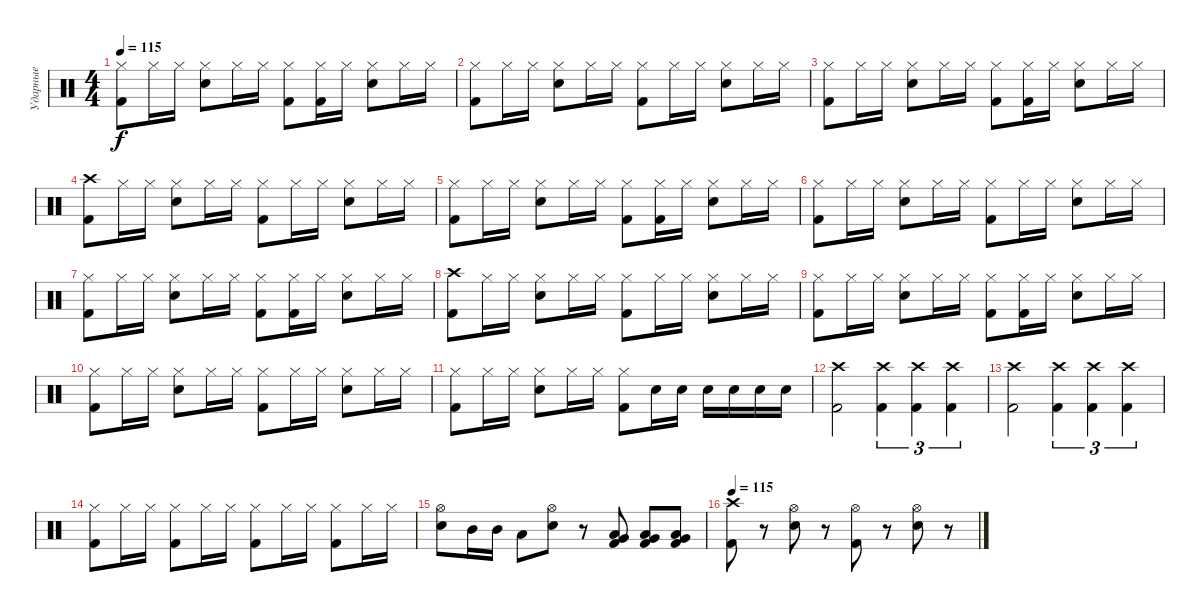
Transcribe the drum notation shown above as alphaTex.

\track ("Ударные" "Ударные") {instrument percussion}
\staff {score}
\articulation defaults
\ts (4 4)
\tempo 115
\clef neutral
\ks c
("Kick (hit) 2" "Hi-Hat (closed)").8{dy f} "Hi-Hat (closed)".16 "Hi-Hat (closed)".16 ("Hi-Hat (closed)" "Electric Snare (hit)").8 "Hi-Hat (closed)".16 "Hi-Hat (closed)".16 ("Kick (hit) 2" "Hi-Hat (closed)").8 ("Kick (hit) 2" "Hi-Hat (closed)").16 "Hi-Hat (closed)".16 ("Hi-Hat (closed)" "Electric Snare (hit)").8 "Hi-Hat (closed)".16 "Hi-Hat (closed)".16 |
("Kick (hit) 2" "Hi-Hat (closed)").8 "Hi-Hat (closed)".16 "Hi-Hat (closed)".16 ("Hi-Hat (closed)" "Electric Snare (hit)").8 "Hi-Hat (closed)".16 "Hi-Hat (closed)".16 ("Kick (hit) 2" "Hi-Hat (closed)").8 "Hi-Hat (closed)".16 "Hi-Hat (closed)".16 ("Hi-Hat (closed)" "Electric Snare (hit)").8 "Hi-Hat (closed)".16 "Hi-Hat (closed)".16 |
("Kick (hit) 2" "Hi-Hat (closed)").8 "Hi-Hat (closed)".16 "Hi-Hat (closed)".16 ("Hi-Hat (closed)" "Electric Snare (hit)").8 "Hi-Hat (closed)".16 "Hi-Hat (closed)".16 ("Kick (hit) 2" "Hi-Hat (closed)").8 ("Kick (hit) 2" "Hi-Hat (closed)").16 "Hi-Hat (closed)".16 ("Hi-Hat (closed)" "Electric Snare (hit)").8 "Hi-Hat (closed)".16 "Hi-Hat (closed)".16 |
("Kick (hit) 2" "Crash high (hit)").8 "Hi-Hat (closed)".16 "Hi-Hat (closed)".16 ("Hi-Hat (closed)" "Electric Snare (hit)").8 "Hi-Hat (closed)".16 "Hi-Hat (closed)".16 ("Kick (hit) 2" "Hi-Hat (closed)").8 "Hi-Hat (closed)".16 "Hi-Hat (closed)".16 ("Hi-Hat (closed)" "Electric Snare (hit)").8 "Hi-Hat (closed)".16 "Hi-Hat (closed)".16 |
("Kick (hit) 2" "Hi-Hat (closed)").8 "Hi-Hat (closed)".16 "Hi-Hat (closed)".16 ("Hi-Hat (closed)" "Electric Snare (hit)").8 "Hi-Hat (closed)".16 "Hi-Hat (closed)".16 ("Kick (hit) 2" "Hi-Hat (closed)").8 ("Kick (hit) 2" "Hi-Hat (closed)").16 "Hi-Hat (closed)".16 ("Hi-Hat (closed)" "Electric Snare (hit)").8 "Hi-Hat (closed)".16 "Hi-Hat (closed)".16 |
("Kick (hit) 2" "Hi-Hat (closed)").8 "Hi-Hat (closed)".16 "Hi-Hat (closed)".16 ("Hi-Hat (closed)" "Electric Snare (hit)").8 "Hi-Hat (closed)".16 "Hi-Hat (closed)".16 ("Kick (hit) 2" "Hi-Hat (closed)").8 "Hi-Hat (closed)".16 "Hi-Hat (closed)".16 ("Hi-Hat (closed)" "Electric Snare (hit)").8 "Hi-Hat (closed)".16 "Hi-Hat (closed)".16 |
("Kick (hit) 2" "Hi-Hat (closed)").8 "Hi-Hat (closed)".16 "Hi-Hat (closed)".16 ("Hi-Hat (closed)" "Electric Snare (hit)").8 "Hi-Hat (closed)".16 "Hi-Hat (closed)".16 ("Kick (hit) 2" "Hi-Hat (closed)").8 ("Kick (hit) 2" "Hi-Hat (closed)").16 "Hi-Hat (closed)".16 ("Hi-Hat (closed)" "Electric Snare (hit)").8 "Hi-Hat (closed)".16 "Hi-Hat (closed)".16 |
("Kick (hit) 2" "Crash high (hit)").8 "Hi-Hat (closed)".16 "Hi-Hat (closed)".16 ("Hi-Hat (closed)" "Electric Snare (hit)").8 "Hi-Hat (closed)".16 "Hi-Hat (closed)".16 ("Kick (hit) 2" "Hi-Hat (closed)").8 "Hi-Hat (closed)".16 "Hi-Hat (closed)".16 ("Hi-Hat (closed)" "Electric Snare (hit)").8 "Hi-Hat (closed)".16 "Hi-Hat (closed)".16 |
("Kick (hit) 2" "Hi-Hat (closed)").8 "Hi-Hat (closed)".16 "Hi-Hat (closed)".16 ("Hi-Hat (closed)" "Electric Snare (hit)").8 "Hi-Hat (closed)".16 "Hi-Hat (closed)".16 ("Kick (hit) 2" "Hi-Hat (closed)").8 ("Kick (hit) 2" "Hi-Hat (closed)").16 "Hi-Hat (closed)".16 ("Hi-Hat (closed)" "Electric Snare (hit)").8 "Hi-Hat (closed)".16 "Hi-Hat (closed)".16 |
("Kick (hit) 2" "Hi-Hat (closed)").8 "Hi-Hat (closed)".16 "Hi-Hat (closed)".16 ("Hi-Hat (closed)" "Electric Snare (hit)").8 "Hi-Hat (closed)".16 "Hi-Hat (closed)".16 ("Kick (hit) 2" "Hi-Hat (closed)").8 "Hi-Hat (closed)".16 "Hi-Hat (closed)".16 ("Hi-Hat (closed)" "Electric Snare (hit)").8 "Hi-Hat (closed)".16 "Hi-Hat (closed)".16 |
("Kick (hit) 2" "Hi-Hat (closed)").8 "Hi-Hat (closed)".16 "Hi-Hat (closed)".16 ("Hi-Hat (closed)" "Electric Snare (hit)").8 "Hi-Hat (closed)".16 "Hi-Hat (closed)".16 ("Kick (hit) 2" "Hi-Hat (closed)").8 "Electric Snare (hit)".16 "Electric Snare (hit)".16 "Electric Snare (hit)".16 "Electric Snare (hit)".16 "Electric Snare (hit)".16 "Electric Snare (hit)".16 |
("Kick (hit) 2" "Crash high (hit)").2 ("Kick (hit) 2" "Crash high (hit)").4{tu (3 2)} ("Kick (hit) 2" "Crash high (hit)").4{tu (3 2)} ("Kick (hit) 2" "Crash high (hit)").4{tu (3 2)} |
("Kick (hit) 2" "Crash high (hit)").2 ("Kick (hit) 2" "Crash high (hit)").4{tu (3 2)} ("Kick (hit) 2" "Crash high (hit)").4{tu (3 2)} ("Kick (hit) 2" "Crash high (hit)").4{tu (3 2)} |
("Kick (hit) 2" "Hi-Hat (closed)").8 "Hi-Hat (closed)".16 "Hi-Hat (closed)".16 ("Kick (hit) 2" "Hi-Hat (closed)").8 "Hi-Hat (closed)".16 "Hi-Hat (closed)".16 ("Kick (hit) 2" "Hi-Hat (closed)").8 "Hi-Hat (closed)".16 "Hi-Hat (closed)".16 ("Kick (hit) 2" "Hi-Hat (closed)").8 "Hi-Hat (closed)".16 "Hi-Hat (closed)".16 |
("Hi-Hat (open)" "Electric Snare (hit)").8 "Mid Tom (hit)".16 "Mid Tom (hit)".16 "Low Tom (hit)".8 ("Electric Snare (hit)" "Hi-Hat (open)").8 r.8 ("Kick (hit) 2" "Very Low Tom (hit)" "Low Tom (hit)").8 ("Kick (hit) 2" "Very Low Tom (hit)" "Low Tom (hit)").8 ("Kick (hit) 2" "Very Low Tom (hit)" "Low Tom (hit)").8 |
\tempo 115
("Kick (hit) 2" "Crash high (hit)").8 r.8 ("Hi-Hat (open)" "Electric Snare (hit)").8 r.8 ("Kick (hit) 2" "Hi-Hat (open)").8 r.8 ("Hi-Hat (open)" "Electric Snare (hit)").8 r.8
